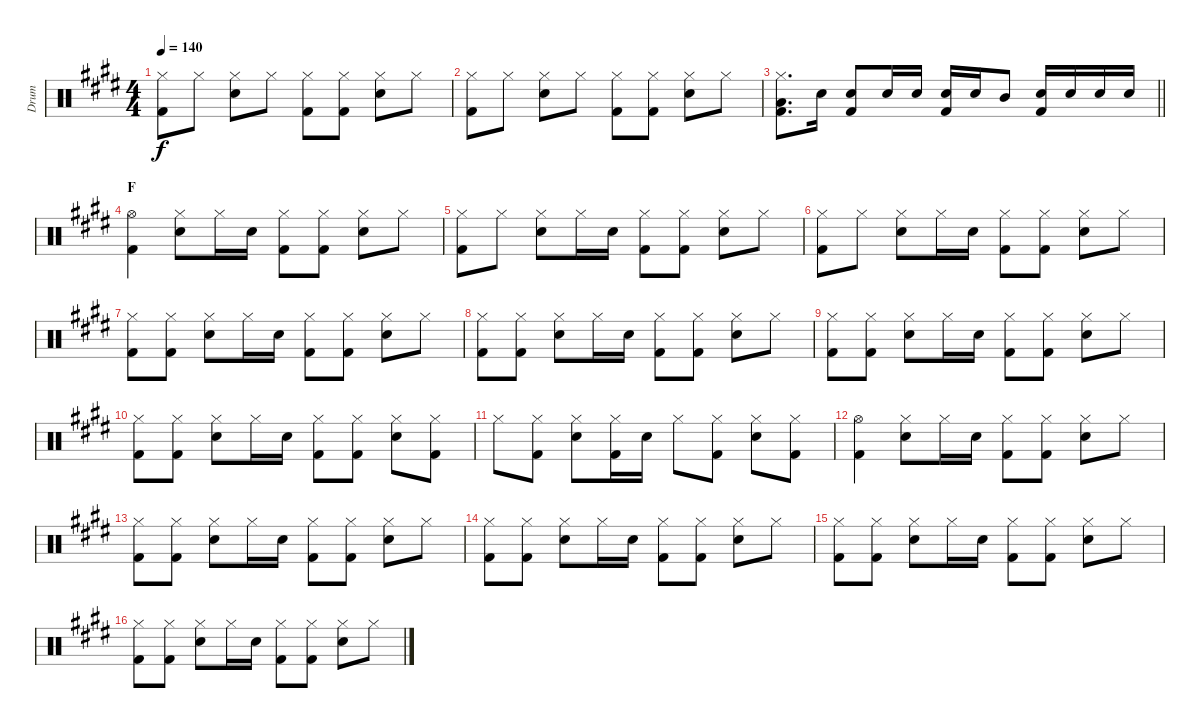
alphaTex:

\track ("Drum" "Drum") {instrument percussion}
\staff {score}
\articulation defaults
\ts (4 4)
\tempo 140
\clef neutral
\ks c#minor
("Hi-Hat (closed)" "Kick (hit) 2").8{dy f} "Hi-Hat (closed)".8 ("Hi-Hat (closed)" "Snare (hit) 2").8 "Hi-Hat (closed)".8 ("Hi-Hat (closed)" "Kick (hit) 2").8 ("Hi-Hat (closed)" "Kick (hit) 2").8 ("Hi-Hat (closed)" "Snare (hit) 2").8 "Hi-Hat (closed)".8 |
("Hi-Hat (closed)" "Kick (hit) 2").8 "Hi-Hat (closed)".8 ("Hi-Hat (closed)" "Snare (hit) 2").8 "Hi-Hat (closed)".8 ("Hi-Hat (closed)" "Kick (hit) 2").8 ("Hi-Hat (closed)" "Kick (hit) 2").8 ("Hi-Hat (closed)" "Snare (hit) 2").8 "Hi-Hat (closed)".8 |
\barLineRight lightlight
("Hi-Hat (closed)" "Low Floor Tom (hit)" "Kick (hit) 2").8{d} "Snare (hit) 2".16 ("Snare (hit) 2" "Kick (hit) 2").8 "Snare (hit) 2".16 "Snare (hit) 2".16 ("Snare (hit) 2" "Kick (hit) 2").16 "Snare (hit) 2".16 "Mid Tom (hit)".8 ("Snare (hit) 2" "Kick (hit) 2").16 "Snare (hit) 2".16 "Snare (hit) 2".16 "Snare (hit) 2".16 |
\section ("" "F")
("Hi-Hat (open)" "Kick (hit) 2").4 ("Hi-Hat (closed)" "Snare (hit) 2").8 "Hi-Hat (closed)".16 "Snare (hit) 2".16 ("Hi-Hat (closed)" "Kick (hit) 2").8 ("Hi-Hat (closed)" "Kick (hit) 2").8 ("Hi-Hat (closed)" "Snare (hit) 2").8 "Hi-Hat (closed)".8 |
("Hi-Hat (closed)" "Kick (hit) 2").8 "Hi-Hat (closed)".8 ("Hi-Hat (closed)" "Snare (hit) 2").8 "Hi-Hat (closed)".16 "Snare (hit) 2".16 ("Hi-Hat (closed)" "Kick (hit) 2").8 ("Hi-Hat (closed)" "Kick (hit) 2").8 ("Hi-Hat (closed)" "Snare (hit) 2").8 "Hi-Hat (closed)".8 |
("Hi-Hat (closed)" "Kick (hit) 2").8 "Hi-Hat (closed)".8 ("Hi-Hat (closed)" "Snare (hit) 2").8 "Hi-Hat (closed)".16 "Snare (hit) 2".16 ("Hi-Hat (closed)" "Kick (hit) 2").8 ("Hi-Hat (closed)" "Kick (hit) 2").8 ("Hi-Hat (closed)" "Snare (hit) 2").8 "Hi-Hat (closed)".8 |
("Hi-Hat (closed)" "Kick (hit) 2").8 ("Hi-Hat (closed)" "Kick (hit) 2").8 ("Hi-Hat (closed)" "Snare (hit) 2").8 "Hi-Hat (closed)".16 "Snare (hit) 2".16 ("Hi-Hat (closed)" "Kick (hit) 2").8 ("Hi-Hat (closed)" "Kick (hit) 2").8 ("Hi-Hat (closed)" "Snare (hit) 2").8 "Hi-Hat (closed)".8 |
("Hi-Hat (closed)" "Kick (hit) 2").8 ("Hi-Hat (closed)" "Kick (hit) 2").8 ("Hi-Hat (closed)" "Snare (hit) 2").8 "Hi-Hat (closed)".16 "Snare (hit) 2".16 ("Hi-Hat (closed)" "Kick (hit) 2").8 ("Hi-Hat (closed)" "Kick (hit) 2").8 ("Hi-Hat (closed)" "Snare (hit) 2").8 "Hi-Hat (closed)".8 |
("Hi-Hat (closed)" "Kick (hit) 2").8 ("Hi-Hat (closed)" "Kick (hit) 2").8 ("Hi-Hat (closed)" "Snare (hit) 2").8 "Hi-Hat (closed)".16 "Snare (hit) 2".16 ("Hi-Hat (closed)" "Kick (hit) 2").8 ("Hi-Hat (closed)" "Kick (hit) 2").8 ("Hi-Hat (closed)" "Snare (hit) 2").8 "Hi-Hat (closed)".8 |
("Hi-Hat (closed)" "Kick (hit) 2").8 ("Hi-Hat (closed)" "Kick (hit) 2").8 ("Hi-Hat (closed)" "Snare (hit) 2").8 "Hi-Hat (closed)".16 "Snare (hit) 2".16 ("Hi-Hat (closed)" "Kick (hit) 2").8 ("Hi-Hat (closed)" "Kick (hit) 2").8 ("Hi-Hat (closed)" "Snare (hit) 2").8 ("Hi-Hat (closed)" "Kick (hit) 2").8 |
"Hi-Hat (closed)".8 ("Hi-Hat (closed)" "Kick (hit) 2").8 ("Hi-Hat (closed)" "Snare (hit) 2").8 ("Hi-Hat (closed)" "Kick (hit) 2").16 "Snare (hit) 2".16 "Hi-Hat (closed)".8 ("Hi-Hat (closed)" "Kick (hit) 2").8 ("Hi-Hat (closed)" "Snare (hit) 2").8 ("Hi-Hat (closed)" "Kick (hit) 2").8 |
("Hi-Hat (open)" "Kick (hit) 2").4 ("Hi-Hat (closed)" "Snare (hit) 2").8 "Hi-Hat (closed)".16 "Snare (hit) 2".16 ("Hi-Hat (closed)" "Kick (hit) 2").8 ("Hi-Hat (closed)" "Kick (hit) 2").8 ("Hi-Hat (closed)" "Snare (hit) 2").8 "Hi-Hat (closed)".8 |
("Hi-Hat (closed)" "Kick (hit) 2").8 ("Hi-Hat (closed)" "Kick (hit) 2").8 ("Hi-Hat (closed)" "Snare (hit) 2").8 "Hi-Hat (closed)".16 "Snare (hit) 2".16 ("Hi-Hat (closed)" "Kick (hit) 2").8 ("Hi-Hat (closed)" "Kick (hit) 2").8 ("Hi-Hat (closed)" "Snare (hit) 2").8 "Hi-Hat (closed)".8 |
("Hi-Hat (closed)" "Kick (hit) 2").8 ("Hi-Hat (closed)" "Kick (hit) 2").8 ("Hi-Hat (closed)" "Snare (hit) 2").8 "Hi-Hat (closed)".16 "Snare (hit) 2".16 ("Hi-Hat (closed)" "Kick (hit) 2").8 ("Hi-Hat (closed)" "Kick (hit) 2").8 ("Hi-Hat (closed)" "Snare (hit) 2").8 "Hi-Hat (closed)".8 |
("Hi-Hat (closed)" "Kick (hit) 2").8 ("Hi-Hat (closed)" "Kick (hit) 2").8 ("Hi-Hat (closed)" "Snare (hit) 2").8 "Hi-Hat (closed)".16 "Snare (hit) 2".16 ("Hi-Hat (closed)" "Kick (hit) 2").8 ("Hi-Hat (closed)" "Kick (hit) 2").8 ("Hi-Hat (closed)" "Snare (hit) 2").8 "Hi-Hat (closed)".8 |
("Hi-Hat (closed)" "Kick (hit) 2").8 ("Hi-Hat (closed)" "Kick (hit) 2").8 ("Hi-Hat (closed)" "Snare (hit) 2").8 "Hi-Hat (closed)".16 "Snare (hit) 2".16 ("Hi-Hat (closed)" "Kick (hit) 2").8 ("Hi-Hat (closed)" "Kick (hit) 2").8 ("Hi-Hat (closed)" "Snare (hit) 2").8 "Hi-Hat (closed)".8
